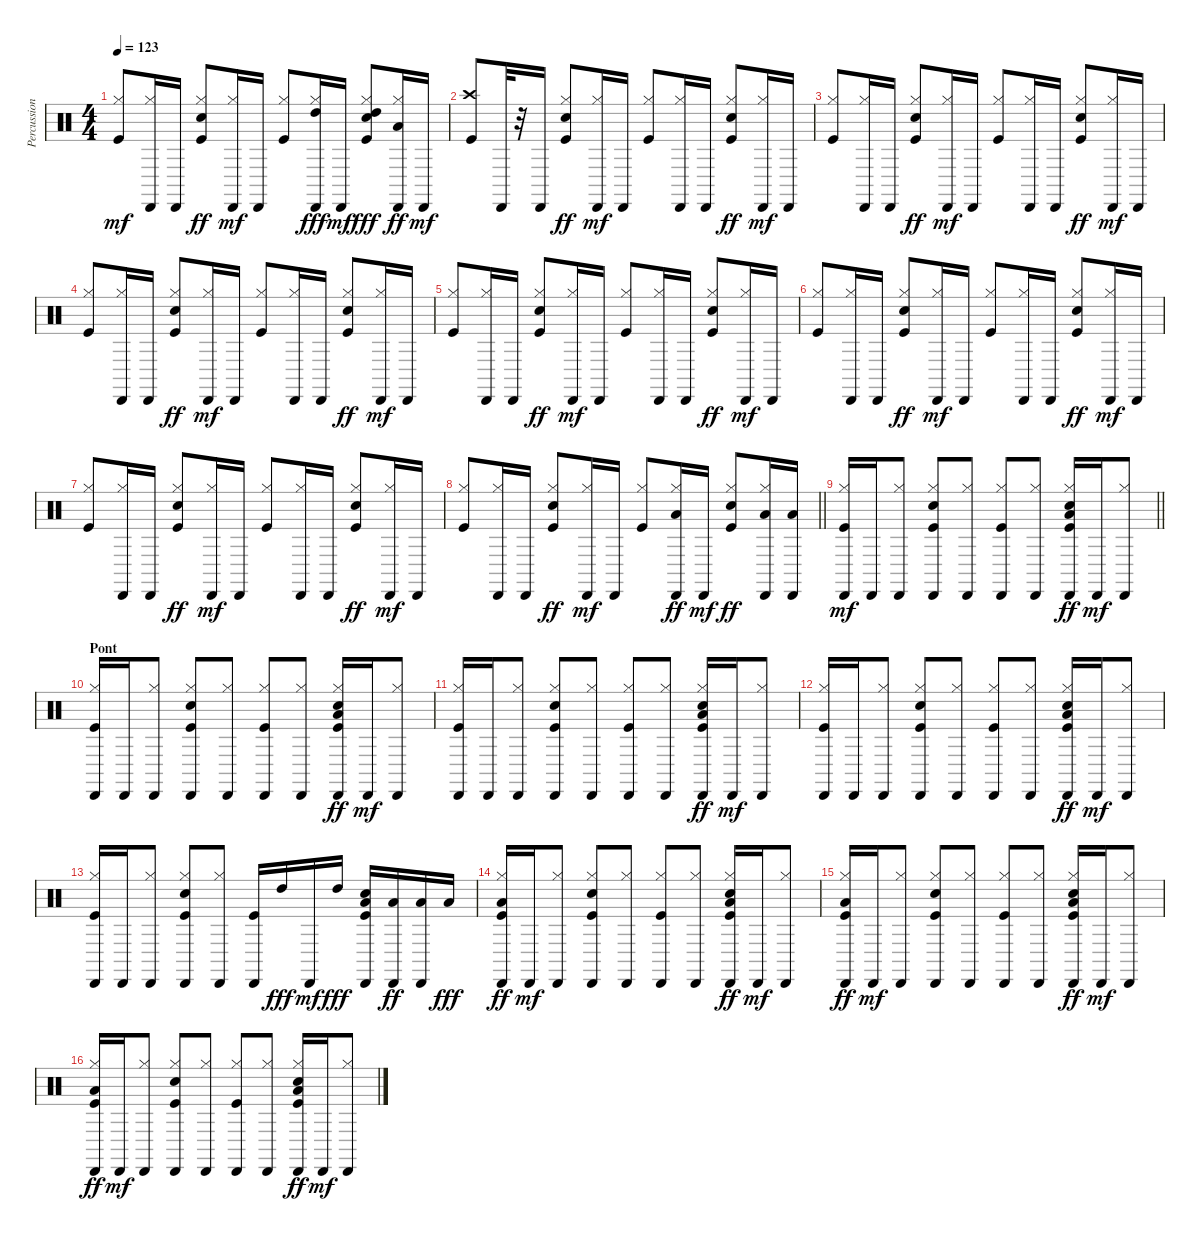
\track ("Percussions" "Percussion") {instrument percussion}
\staff {score}
\articulation defaults
\ts (4 4)
\tempo 123
\clef neutral
\ks c
("Kick (hit)" "Hi-Hat (closed)").8{dy mf} ("Hi-Hat (closed)" "Cabasa (hit)").16 "Cabasa (hit)".16 ("Kick (hit)" "Snare (hit) 2" "Hi-Hat (closed)").8{dy ff} ("Hi-Hat (closed)" "Cabasa (hit)").16{dy mf} "Cabasa (hit)".16 ("Kick (hit)" "Hi-Hat (closed)").8 ("Hi-Hat (closed)" "Cabasa (hit)" "High Tom (hit)").16{dy fff} "Cabasa (hit)".16{dy mf} ("Kick (hit)" "Snare (hit) 2" "Hi-Hat (closed)" "High Tom (hit)").8{dy fff} ("Hi-Hat (closed)" "Cabasa (hit)" "Low Tom (hit)").16{dy ff} "Cabasa (hit)".16{dy mf} |
("Kick (hit)" "Crash high (hit)").8 "Cabasa (hit)".32 r.32 "Cabasa (hit)".16 ("Kick (hit)" "Snare (hit) 2" "Hi-Hat (closed)").8{dy ff} ("Hi-Hat (closed)" "Cabasa (hit)").16{dy mf} "Cabasa (hit)".16 ("Kick (hit)" "Hi-Hat (closed)").8 ("Hi-Hat (closed)" "Cabasa (hit)").16 "Cabasa (hit)".16 ("Kick (hit)" "Snare (hit) 2" "Hi-Hat (closed)").8{dy ff} ("Hi-Hat (closed)" "Cabasa (hit)").16{dy mf} "Cabasa (hit)".16 |
("Kick (hit)" "Hi-Hat (closed)").8 ("Hi-Hat (closed)" "Cabasa (hit)").16 "Cabasa (hit)".16 ("Kick (hit)" "Snare (hit) 2" "Hi-Hat (closed)").8{dy ff} ("Hi-Hat (closed)" "Cabasa (hit)").16{dy mf} "Cabasa (hit)".16 ("Kick (hit)" "Hi-Hat (closed)").8 ("Hi-Hat (closed)" "Cabasa (hit)").16 "Cabasa (hit)".16 ("Kick (hit)" "Snare (hit) 2" "Hi-Hat (closed)").8{dy ff} ("Hi-Hat (closed)" "Cabasa (hit)").16{dy mf} "Cabasa (hit)".16 |
("Kick (hit)" "Hi-Hat (closed)").8 ("Hi-Hat (closed)" "Cabasa (hit)").16 "Cabasa (hit)".16 ("Kick (hit)" "Snare (hit) 2" "Hi-Hat (closed)").8{dy ff} ("Hi-Hat (closed)" "Cabasa (hit)").16{dy mf} "Cabasa (hit)".16 ("Kick (hit)" "Hi-Hat (closed)").8 ("Hi-Hat (closed)" "Cabasa (hit)").16 "Cabasa (hit)".16 ("Kick (hit)" "Snare (hit) 2" "Hi-Hat (closed)").8{dy ff} ("Hi-Hat (closed)" "Cabasa (hit)").16{dy mf} "Cabasa (hit)".16 |
("Kick (hit)" "Hi-Hat (closed)").8 ("Hi-Hat (closed)" "Cabasa (hit)").16 "Cabasa (hit)".16 ("Kick (hit)" "Snare (hit) 2" "Hi-Hat (closed)").8{dy ff} ("Hi-Hat (closed)" "Cabasa (hit)").16{dy mf} "Cabasa (hit)".16 ("Kick (hit)" "Hi-Hat (closed)").8 ("Hi-Hat (closed)" "Cabasa (hit)").16 "Cabasa (hit)".16 ("Kick (hit)" "Snare (hit) 2" "Hi-Hat (closed)").8{dy ff} ("Hi-Hat (closed)" "Cabasa (hit)").16{dy mf} "Cabasa (hit)".16 |
("Kick (hit)" "Hi-Hat (closed)").8 ("Hi-Hat (closed)" "Cabasa (hit)").16 "Cabasa (hit)".16 ("Kick (hit)" "Snare (hit) 2" "Hi-Hat (closed)").8{dy ff} ("Hi-Hat (closed)" "Cabasa (hit)").16{dy mf} "Cabasa (hit)".16 ("Kick (hit)" "Hi-Hat (closed)").8 ("Hi-Hat (closed)" "Cabasa (hit)").16 "Cabasa (hit)".16 ("Kick (hit)" "Snare (hit) 2" "Hi-Hat (closed)").8{dy ff} ("Hi-Hat (closed)" "Cabasa (hit)").16{dy mf} "Cabasa (hit)".16 |
("Kick (hit)" "Hi-Hat (closed)").8 ("Hi-Hat (closed)" "Cabasa (hit)").16 "Cabasa (hit)".16 ("Kick (hit)" "Snare (hit) 2" "Hi-Hat (closed)").8{dy ff} ("Hi-Hat (closed)" "Cabasa (hit)").16{dy mf} "Cabasa (hit)".16 ("Kick (hit)" "Hi-Hat (closed)").8 ("Hi-Hat (closed)" "Cabasa (hit)").16 "Cabasa (hit)".16 ("Kick (hit)" "Snare (hit) 2" "Hi-Hat (closed)").8{dy ff} ("Hi-Hat (closed)" "Cabasa (hit)").16{dy mf} "Cabasa (hit)".16 |
\barLineRight lightlight
("Kick (hit)" "Hi-Hat (closed)").8 ("Hi-Hat (closed)" "Cabasa (hit)").16 "Cabasa (hit)".16 ("Kick (hit)" "Snare (hit) 2" "Hi-Hat (closed)").8{dy ff} ("Hi-Hat (closed)" "Cabasa (hit)").16{dy mf} "Cabasa (hit)".16 ("Kick (hit)" "Hi-Hat (closed)").8 ("Hi-Hat (closed)" "Cabasa (hit)" "Low Tom (hit)").16{dy ff} "Cabasa (hit)".16{dy mf} ("Kick (hit)" "Snare (hit) 2" "Hi-Hat (closed)").8{dy ff} ("Hi-Hat (closed)" "Cabasa (hit)" "Low Tom (hit)").16 ("Cabasa (hit)" "Low Tom (hit)").16 |
\section ("" "")
\barLineRight lightlight
("Kick (hit)" "Hi-Hat (closed)" "Cabasa (hit)").16{dy mf} "Cabasa (hit)".16 ("Hi-Hat (closed)" "Cabasa (hit)").8 ("Kick (hit)" "Snare (hit) 2" "Hi-Hat (closed)" "Cabasa (hit)").8 ("Hi-Hat (closed)" "Cabasa (hit)").8 ("Kick (hit)" "Hi-Hat (closed)" "Cabasa (hit)").8 ("Hi-Hat (closed)" "Cabasa (hit)").8 ("Kick (hit)" "Snare (hit) 2" "Hi-Hat (closed)" "Cabasa (hit)" "Low Tom (hit)").16{dy ff} "Cabasa (hit)".16{dy mf} ("Hi-Hat (closed)" "Cabasa (hit)").8 |
\section ("" "Pont")
("Kick (hit)" "Hi-Hat (closed)" "Cabasa (hit)").16 "Cabasa (hit)".16 ("Hi-Hat (closed)" "Cabasa (hit)").8 ("Kick (hit)" "Snare (hit) 2" "Hi-Hat (closed)" "Cabasa (hit)").8 ("Hi-Hat (closed)" "Cabasa (hit)").8 ("Kick (hit)" "Hi-Hat (closed)" "Cabasa (hit)").8 ("Hi-Hat (closed)" "Cabasa (hit)").8 ("Kick (hit)" "Snare (hit) 2" "Hi-Hat (closed)" "Cabasa (hit)" "Low Tom (hit)").16{dy ff} "Cabasa (hit)".16{dy mf} ("Hi-Hat (closed)" "Cabasa (hit)").8 |
("Kick (hit)" "Hi-Hat (closed)" "Cabasa (hit)").16 "Cabasa (hit)".16 ("Hi-Hat (closed)" "Cabasa (hit)").8 ("Kick (hit)" "Snare (hit) 2" "Hi-Hat (closed)" "Cabasa (hit)").8 ("Hi-Hat (closed)" "Cabasa (hit)").8 ("Kick (hit)" "Hi-Hat (closed)" "Cabasa (hit)").8 ("Hi-Hat (closed)" "Cabasa (hit)").8 ("Kick (hit)" "Snare (hit) 2" "Hi-Hat (closed)" "Cabasa (hit)" "Low Tom (hit)").16{dy ff} "Cabasa (hit)".16{dy mf} ("Hi-Hat (closed)" "Cabasa (hit)").8 |
("Kick (hit)" "Hi-Hat (closed)" "Cabasa (hit)").16 "Cabasa (hit)".16 ("Hi-Hat (closed)" "Cabasa (hit)").8 ("Kick (hit)" "Snare (hit) 2" "Hi-Hat (closed)" "Cabasa (hit)").8 ("Hi-Hat (closed)" "Cabasa (hit)").8 ("Kick (hit)" "Hi-Hat (closed)" "Cabasa (hit)").8 ("Hi-Hat (closed)" "Cabasa (hit)").8 ("Kick (hit)" "Snare (hit) 2" "Hi-Hat (closed)" "Cabasa (hit)" "Low Tom (hit)").16{dy ff} "Cabasa (hit)".16{dy mf} ("Hi-Hat (closed)" "Cabasa (hit)").8 |
("Kick (hit)" "Hi-Hat (closed)" "Cabasa (hit)").16 "Cabasa (hit)".16 ("Hi-Hat (closed)" "Cabasa (hit)").8 ("Kick (hit)" "Snare (hit) 2" "Hi-Hat (closed)" "Cabasa (hit)").8 ("Hi-Hat (closed)" "Cabasa (hit)").8 ("Kick (hit)" "Cabasa (hit)").16 "High Tom (hit)".16{dy fff} "Cabasa (hit)".16{dy mf} "High Tom (hit)".16{dy fff} ("Kick (hit)" "Snare (hit) 2" "Cabasa (hit)" "Low Tom (hit)").16 ("Cabasa (hit)" "Low Tom (hit)").16{dy ff} ("Cabasa (hit)" "Low Tom (hit)").16 "Low Tom (hit)".16{dy fff} |
("Kick (hit)" "Hi-Hat (closed)" "Cabasa (hit)" "Low Tom (hit)").16{dy ff} "Cabasa (hit)".16{dy mf} ("Hi-Hat (closed)" "Cabasa (hit)").8 ("Kick (hit)" "Snare (hit) 2" "Hi-Hat (closed)" "Cabasa (hit)").8 ("Hi-Hat (closed)" "Cabasa (hit)").8 ("Kick (hit)" "Hi-Hat (closed)" "Cabasa (hit)").8 ("Hi-Hat (closed)" "Cabasa (hit)").8 ("Kick (hit)" "Snare (hit) 2" "Hi-Hat (closed)" "Cabasa (hit)" "Low Tom (hit)").16{dy ff} "Cabasa (hit)".16{dy mf} ("Hi-Hat (closed)" "Cabasa (hit)").8 |
("Kick (hit)" "Hi-Hat (closed)" "Cabasa (hit)" "Low Tom (hit)").16{dy ff} "Cabasa (hit)".16{dy mf} ("Hi-Hat (closed)" "Cabasa (hit)").8 ("Kick (hit)" "Snare (hit) 2" "Hi-Hat (closed)" "Cabasa (hit)").8 ("Hi-Hat (closed)" "Cabasa (hit)").8 ("Kick (hit)" "Hi-Hat (closed)" "Cabasa (hit)").8 ("Hi-Hat (closed)" "Cabasa (hit)").8 ("Kick (hit)" "Snare (hit) 2" "Hi-Hat (closed)" "Cabasa (hit)" "Low Tom (hit)").16{dy ff} "Cabasa (hit)".16{dy mf} ("Hi-Hat (closed)" "Cabasa (hit)").8 |
("Kick (hit)" "Hi-Hat (closed)" "Cabasa (hit)" "Low Tom (hit)").16{dy ff} "Cabasa (hit)".16{dy mf} ("Hi-Hat (closed)" "Cabasa (hit)").8 ("Kick (hit)" "Snare (hit) 2" "Hi-Hat (closed)" "Cabasa (hit)").8 ("Hi-Hat (closed)" "Cabasa (hit)").8 ("Kick (hit)" "Hi-Hat (closed)" "Cabasa (hit)").8 ("Hi-Hat (closed)" "Cabasa (hit)").8 ("Kick (hit)" "Snare (hit) 2" "Hi-Hat (closed)" "Cabasa (hit)" "Low Tom (hit)").16{dy ff} "Cabasa (hit)".16{dy mf} ("Hi-Hat (closed)" "Cabasa (hit)").8
